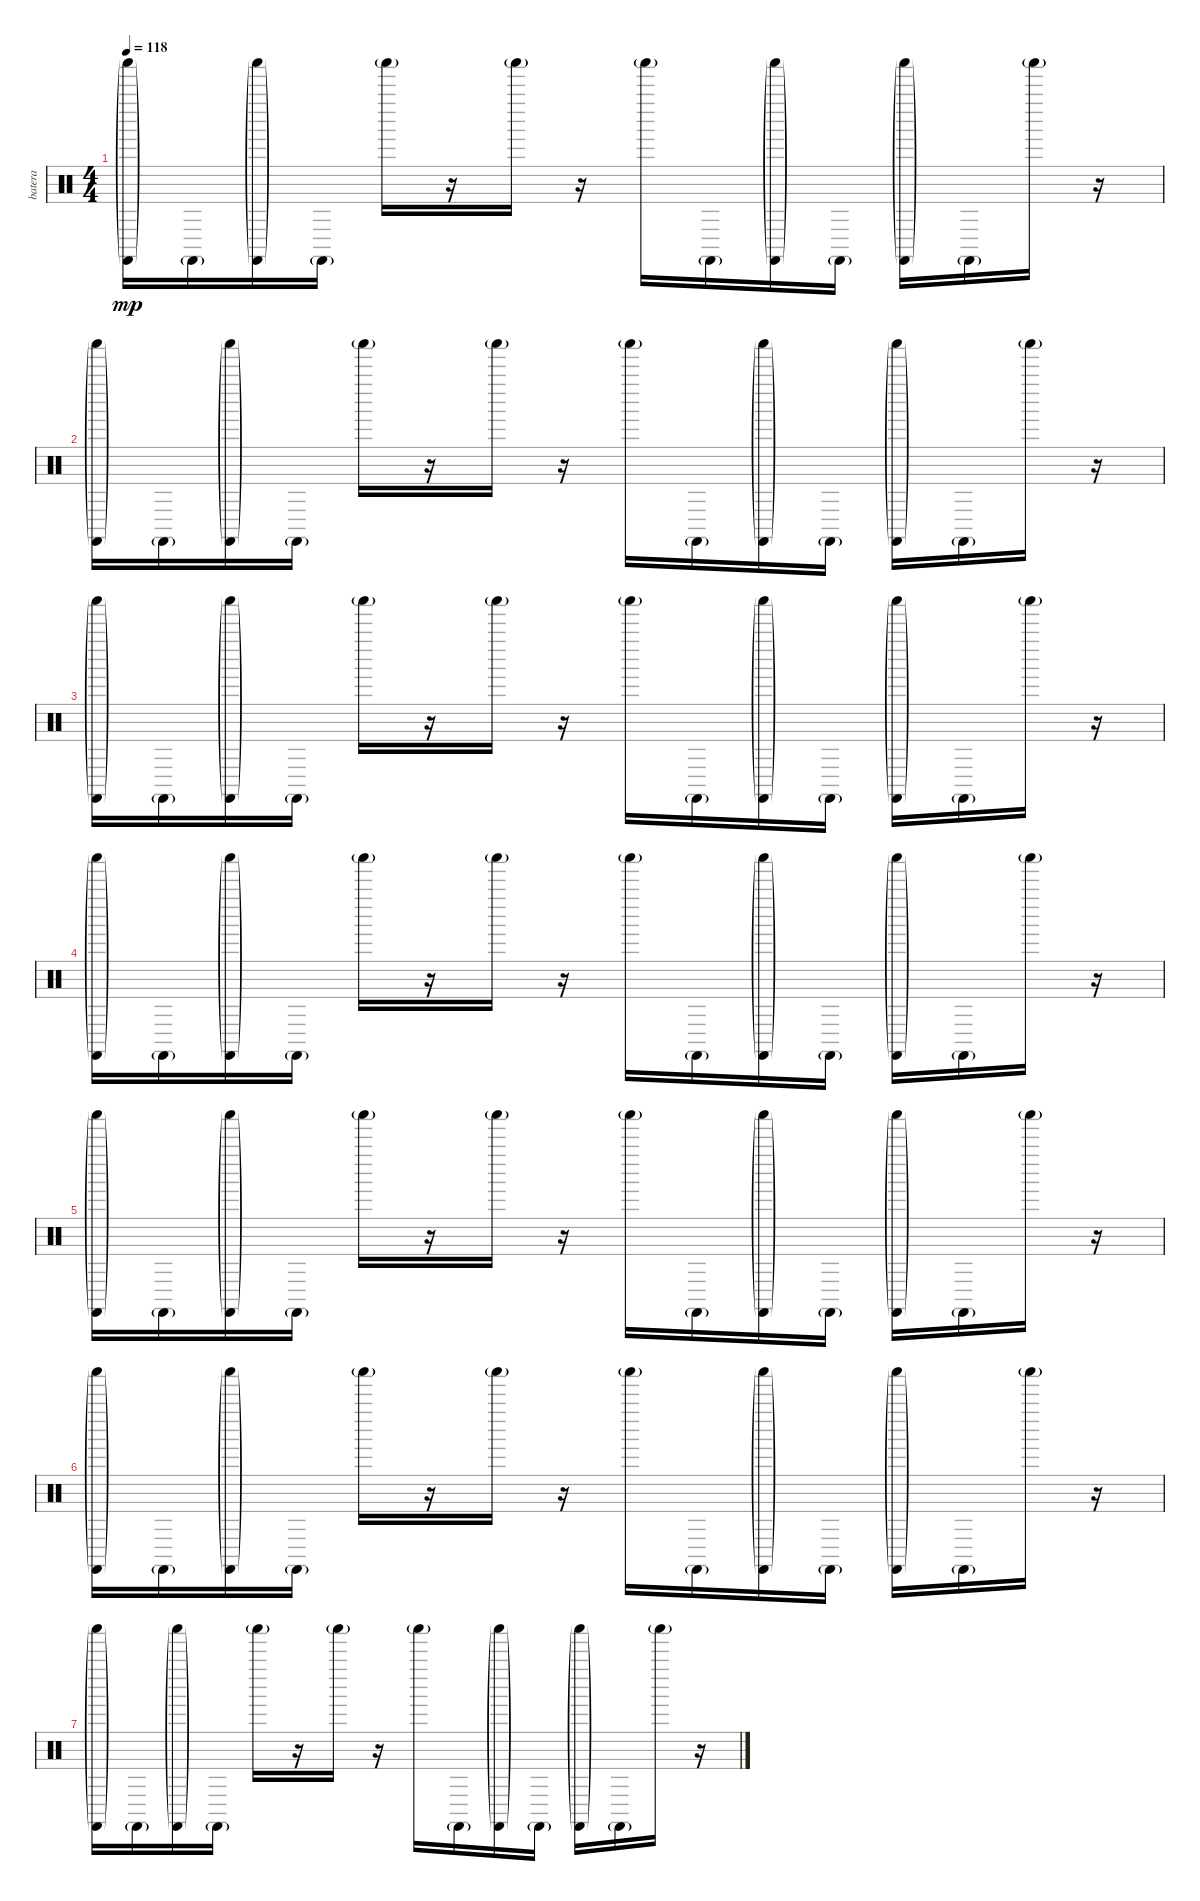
\track ("batera" "batera") {instrument percussion}
\staff {score}
\articulation defaults
\ts (4 4)
\tempo 118
\clef neutral
\ks c
("Castanets (hit)"{g} "Shaker (hit)"{g}).16{dy mp} "Castanets (hit)"{g}.16 ("Castanets (hit)"{g} "Shaker (hit)"{g}).16 "Castanets (hit)"{g}.16 "Shaker (hit)"{g}.16 r.16 "Shaker (hit)"{g}.16 r.16 "Shaker (hit)"{g}.16 "Castanets (hit)"{g}.16 ("Castanets (hit)"{g} "Shaker (hit)"{g}).16 "Castanets (hit)"{g}.16 ("Castanets (hit)"{g} "Shaker (hit)"{g}).16 "Castanets (hit)"{g}.16 "Shaker (hit)"{g}.16 r.16 |
("Castanets (hit)"{g} "Shaker (hit)"{g}).16 "Castanets (hit)"{g}.16 ("Castanets (hit)"{g} "Shaker (hit)"{g}).16 "Castanets (hit)"{g}.16 "Shaker (hit)"{g}.16 r.16 "Shaker (hit)"{g}.16 r.16 "Shaker (hit)"{g}.16 "Castanets (hit)"{g}.16 ("Castanets (hit)"{g} "Shaker (hit)"{g}).16 "Castanets (hit)"{g}.16 ("Castanets (hit)"{g} "Shaker (hit)"{g}).16 "Castanets (hit)"{g}.16 "Shaker (hit)"{g}.16 r.16 |
("Castanets (hit)"{g} "Shaker (hit)"{g}).16 "Castanets (hit)"{g}.16 ("Castanets (hit)"{g} "Shaker (hit)"{g}).16 "Castanets (hit)"{g}.16 "Shaker (hit)"{g}.16 r.16 "Shaker (hit)"{g}.16 r.16 "Shaker (hit)"{g}.16 "Castanets (hit)"{g}.16 ("Castanets (hit)"{g} "Shaker (hit)"{g}).16 "Castanets (hit)"{g}.16 ("Castanets (hit)"{g} "Shaker (hit)"{g}).16 "Castanets (hit)"{g}.16 "Shaker (hit)"{g}.16 r.16 |
("Castanets (hit)"{g} "Shaker (hit)"{g}).16 "Castanets (hit)"{g}.16 ("Castanets (hit)"{g} "Shaker (hit)"{g}).16 "Castanets (hit)"{g}.16 "Shaker (hit)"{g}.16 r.16 "Shaker (hit)"{g}.16 r.16 "Shaker (hit)"{g}.16 "Castanets (hit)"{g}.16 ("Castanets (hit)"{g} "Shaker (hit)"{g}).16 "Castanets (hit)"{g}.16 ("Castanets (hit)"{g} "Shaker (hit)"{g}).16 "Castanets (hit)"{g}.16 "Shaker (hit)"{g}.16 r.16 |
("Castanets (hit)"{g} "Shaker (hit)"{g}).16 "Castanets (hit)"{g}.16 ("Castanets (hit)"{g} "Shaker (hit)"{g}).16 "Castanets (hit)"{g}.16 "Shaker (hit)"{g}.16 r.16 "Shaker (hit)"{g}.16 r.16 "Shaker (hit)"{g}.16 "Castanets (hit)"{g}.16 ("Castanets (hit)"{g} "Shaker (hit)"{g}).16 "Castanets (hit)"{g}.16 ("Castanets (hit)"{g} "Shaker (hit)"{g}).16 "Castanets (hit)"{g}.16 "Shaker (hit)"{g}.16 r.16 |
("Castanets (hit)"{g} "Shaker (hit)"{g}).16 "Castanets (hit)"{g}.16 ("Castanets (hit)"{g} "Shaker (hit)"{g}).16 "Castanets (hit)"{g}.16 "Shaker (hit)"{g}.16 r.16 "Shaker (hit)"{g}.16 r.16 "Shaker (hit)"{g}.16 "Castanets (hit)"{g}.16 ("Castanets (hit)"{g} "Shaker (hit)"{g}).16 "Castanets (hit)"{g}.16 ("Castanets (hit)"{g} "Shaker (hit)"{g}).16 "Castanets (hit)"{g}.16 "Shaker (hit)"{g}.16 r.16 |
("Castanets (hit)"{g} "Shaker (hit)"{g}).16 "Castanets (hit)"{g}.16 ("Castanets (hit)"{g} "Shaker (hit)"{g}).16 "Castanets (hit)"{g}.16 "Shaker (hit)"{g}.16 r.16 "Shaker (hit)"{g}.16 r.16 "Shaker (hit)"{g}.16 "Castanets (hit)"{g}.16 ("Castanets (hit)"{g} "Shaker (hit)"{g}).16 "Castanets (hit)"{g}.16 ("Castanets (hit)"{g} "Shaker (hit)"{g}).16 "Castanets (hit)"{g}.16 "Shaker (hit)"{g}.16 r.16
